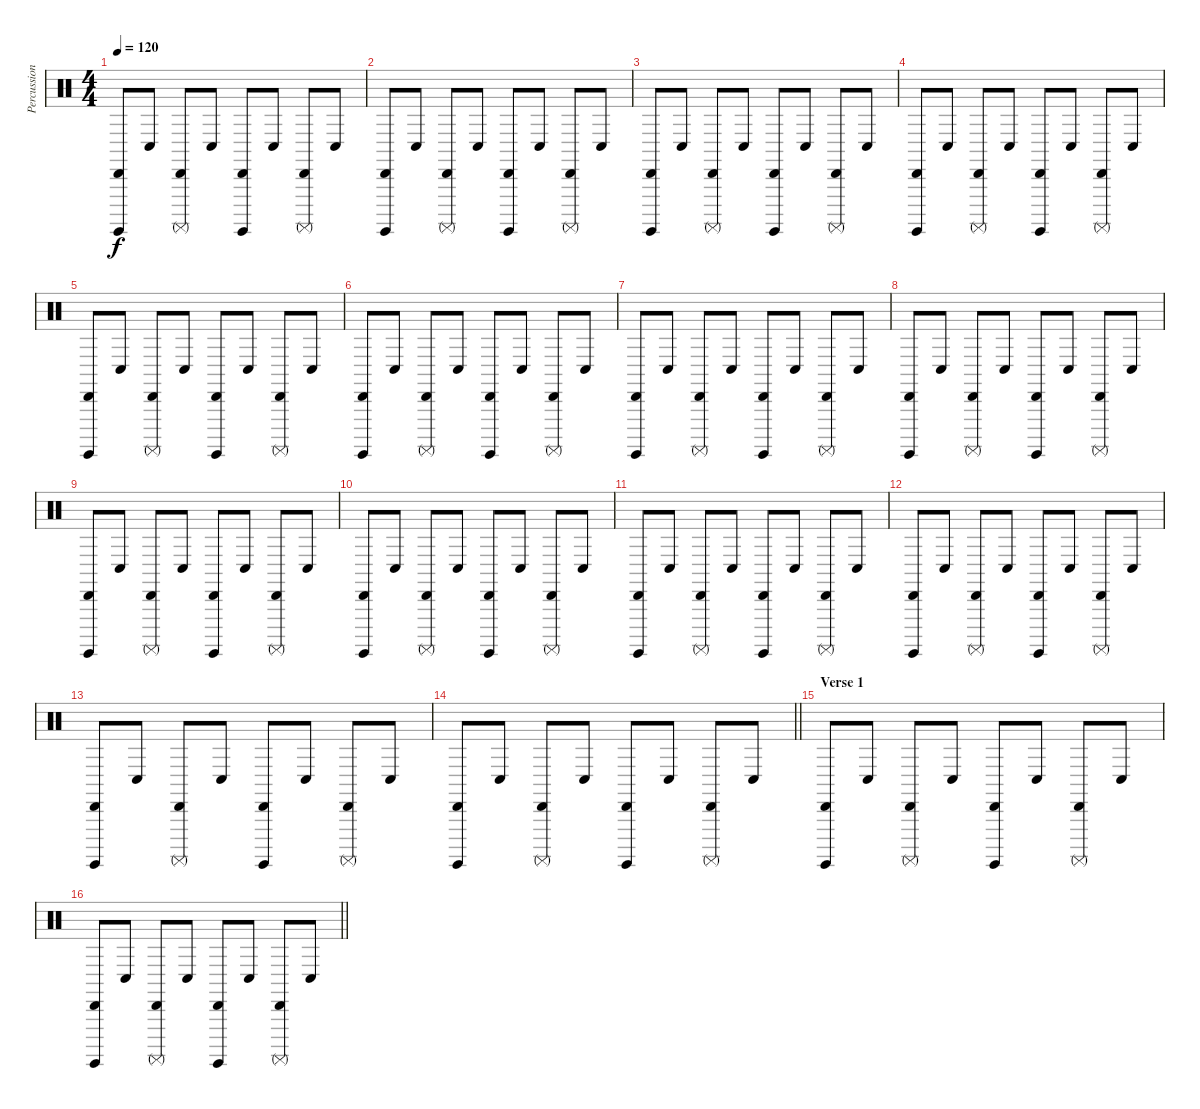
\track ("Percussion" "Percussion") {instrument percussion}
\staff {score}
\articulation defaults
\ts (4 4)
\tempo 120
\clef neutral
\ks c
("Surdo (hit)" "Cabasa (hit)").8{dy f} "Conga low (hit)".8 ("Surdo (mute)" "Cabasa (hit)").8 "Conga low (hit)".8 ("Surdo (hit)" "Cabasa (hit)").8 "Conga low (hit)".8 ("Surdo (mute)" "Cabasa (hit)").8 "Conga low (hit)".8 |
("Surdo (hit)" "Cabasa (hit)").8 "Conga low (hit)".8 ("Surdo (mute)" "Cabasa (hit)").8 "Conga low (hit)".8 ("Surdo (hit)" "Cabasa (hit)").8 "Conga low (hit)".8 ("Surdo (mute)" "Cabasa (hit)").8 "Conga low (hit)".8 |
("Surdo (hit)" "Cabasa (hit)").8 "Conga low (hit)".8 ("Surdo (mute)" "Cabasa (hit)").8 "Conga low (hit)".8 ("Surdo (hit)" "Cabasa (hit)").8 "Conga low (hit)".8 ("Surdo (mute)" "Cabasa (hit)").8 "Conga low (hit)".8 |
("Surdo (hit)" "Cabasa (hit)").8 "Conga low (hit)".8 ("Surdo (mute)" "Cabasa (hit)").8 "Conga low (hit)".8 ("Surdo (hit)" "Cabasa (hit)").8 "Conga low (hit)".8 ("Surdo (mute)" "Cabasa (hit)").8 "Conga low (hit)".8 |
("Surdo (hit)" "Cabasa (hit)").8 "Conga low (hit)".8 ("Surdo (mute)" "Cabasa (hit)").8 "Conga low (hit)".8 ("Surdo (hit)" "Cabasa (hit)").8 "Conga low (hit)".8 ("Surdo (mute)" "Cabasa (hit)").8 "Conga low (hit)".8 |
("Surdo (hit)" "Cabasa (hit)").8 "Conga low (hit)".8 ("Surdo (mute)" "Cabasa (hit)").8 "Conga low (hit)".8 ("Surdo (hit)" "Cabasa (hit)").8 "Conga low (hit)".8 ("Surdo (mute)" "Cabasa (hit)").8 "Conga low (hit)".8 |
("Surdo (hit)" "Cabasa (hit)").8 "Conga low (hit)".8 ("Surdo (mute)" "Cabasa (hit)").8 "Conga low (hit)".8 ("Surdo (hit)" "Cabasa (hit)").8 "Conga low (hit)".8 ("Surdo (mute)" "Cabasa (hit)").8 "Conga low (hit)".8 |
("Surdo (hit)" "Cabasa (hit)").8 "Conga low (hit)".8 ("Surdo (mute)" "Cabasa (hit)").8 "Conga low (hit)".8 ("Surdo (hit)" "Cabasa (hit)").8 "Conga low (hit)".8 ("Surdo (mute)" "Cabasa (hit)").8 "Conga low (hit)".8 |
("Surdo (hit)" "Cabasa (hit)").8 "Conga low (hit)".8 ("Surdo (mute)" "Cabasa (hit)").8 "Conga low (hit)".8 ("Surdo (hit)" "Cabasa (hit)").8 "Conga low (hit)".8 ("Surdo (mute)" "Cabasa (hit)").8 "Conga low (hit)".8 |
("Surdo (hit)" "Cabasa (hit)").8 "Conga low (hit)".8 ("Surdo (mute)" "Cabasa (hit)").8 "Conga low (hit)".8 ("Surdo (hit)" "Cabasa (hit)").8 "Conga low (hit)".8 ("Surdo (mute)" "Cabasa (hit)").8 "Conga low (hit)".8 |
("Surdo (hit)" "Cabasa (hit)").8 "Conga low (hit)".8 ("Surdo (mute)" "Cabasa (hit)").8 "Conga low (hit)".8 ("Surdo (hit)" "Cabasa (hit)").8 "Conga low (hit)".8 ("Surdo (mute)" "Cabasa (hit)").8 "Conga low (hit)".8 |
("Surdo (hit)" "Cabasa (hit)").8 "Conga low (hit)".8 ("Surdo (mute)" "Cabasa (hit)").8 "Conga low (hit)".8 ("Surdo (hit)" "Cabasa (hit)").8 "Conga low (hit)".8 ("Surdo (mute)" "Cabasa (hit)").8 "Conga low (hit)".8 |
("Surdo (hit)" "Cabasa (hit)").8 "Conga low (hit)".8 ("Surdo (mute)" "Cabasa (hit)").8 "Conga low (hit)".8 ("Surdo (hit)" "Cabasa (hit)").8 "Conga low (hit)".8 ("Surdo (mute)" "Cabasa (hit)").8 "Conga low (hit)".8 |
\barLineRight lightlight
("Surdo (hit)" "Cabasa (hit)").8 "Conga low (hit)".8 ("Surdo (mute)" "Cabasa (hit)").8 "Conga low (hit)".8 ("Surdo (hit)" "Cabasa (hit)").8 "Conga low (hit)".8 ("Surdo (mute)" "Cabasa (hit)").8 "Conga low (hit)".8 |
\section ("" "Verse 1")
("Surdo (hit)" "Cabasa (hit)").8 "Conga low (hit)".8 ("Surdo (mute)" "Cabasa (hit)").8 "Conga low (hit)".8 ("Surdo (hit)" "Cabasa (hit)").8 "Conga low (hit)".8 ("Surdo (mute)" "Cabasa (hit)").8 "Conga low (hit)".8 |
\barLineRight lightlight
("Surdo (hit)" "Cabasa (hit)").8 "Conga low (hit)".8 ("Surdo (mute)" "Cabasa (hit)").8 "Conga low (hit)".8 ("Surdo (hit)" "Cabasa (hit)").8 "Conga low (hit)".8 ("Surdo (mute)" "Cabasa (hit)").8 "Conga low (hit)".8
